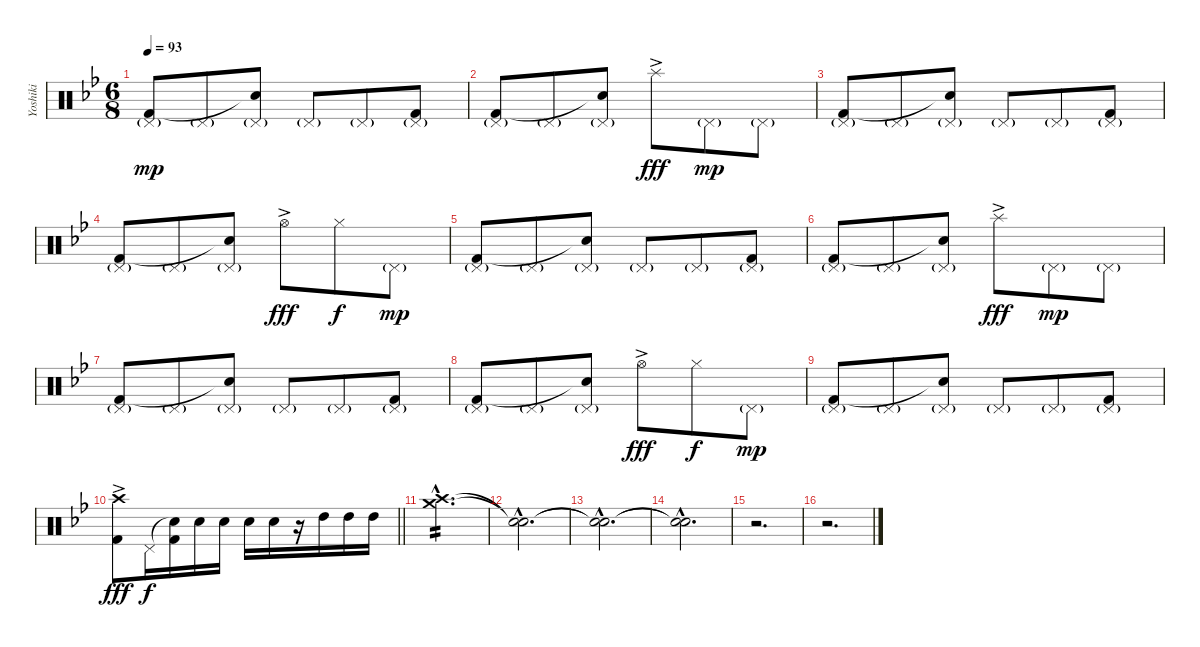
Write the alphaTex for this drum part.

\track ("Yoshiki" "Yoshiki") {instrument percussion}
\staff {score}
\articulation defaults
\ts (6 8)
\tempo 93
\clef neutral
\ks bb
("Pedal Hi-Hat (hit)"{g} "Kick (hit) 2").8{dy mp} "Pedal Hi-Hat (hit)"{g}.8 ("Pedal Hi-Hat (hit)"{g} "Snare (hit)"{t}).8 "Pedal Hi-Hat (hit)"{g}.8 "Pedal Hi-Hat (hit)"{g}.8 ("Pedal Hi-Hat (hit)"{g} "Kick (hit) 2").8 |
("Pedal Hi-Hat (hit)"{g} "Kick (hit) 2").8 "Pedal Hi-Hat (hit)"{g}.8 ("Pedal Hi-Hat (hit)"{g} "Snare (hit)"{t}).8 "Splash (hit)"{ac}.8{dy fff} "Pedal Hi-Hat (hit)"{g}.8{dy mp} "Pedal Hi-Hat (hit)"{g}.8 |
("Pedal Hi-Hat (hit)"{g} "Kick (hit) 2").8 "Pedal Hi-Hat (hit)"{g}.8 ("Pedal Hi-Hat (hit)"{g} "Snare (hit)"{t}).8 "Pedal Hi-Hat (hit)"{g}.8 "Pedal Hi-Hat (hit)"{g}.8 ("Pedal Hi-Hat (hit)"{g} "Kick (hit) 2").8 |
("Pedal Hi-Hat (hit)"{g} "Kick (hit) 2").8 "Pedal Hi-Hat (hit)"{g}.8 ("Pedal Hi-Hat (hit)"{g} "Snare (hit)"{t}).8 "Hi-Hat (open)"{ac}.8{dy fff} "Hi-Hat (closed)".8{dy f} "Pedal Hi-Hat (hit)"{g}.8{dy mp} |
("Pedal Hi-Hat (hit)"{g} "Kick (hit) 2").8 "Pedal Hi-Hat (hit)"{g}.8 ("Pedal Hi-Hat (hit)"{g} "Snare (hit)"{t}).8 "Pedal Hi-Hat (hit)"{g}.8 "Pedal Hi-Hat (hit)"{g}.8 ("Pedal Hi-Hat (hit)"{g} "Kick (hit) 2").8 |
("Pedal Hi-Hat (hit)"{g} "Kick (hit) 2").8 "Pedal Hi-Hat (hit)"{g}.8 ("Pedal Hi-Hat (hit)"{g} "Snare (hit)"{t}).8 "Splash (hit)"{ac}.8{dy fff} "Pedal Hi-Hat (hit)"{g}.8{dy mp} "Pedal Hi-Hat (hit)"{g}.8 |
("Pedal Hi-Hat (hit)"{g} "Kick (hit) 2").8 "Pedal Hi-Hat (hit)"{g}.8 ("Pedal Hi-Hat (hit)"{g} "Snare (hit)"{t}).8 "Pedal Hi-Hat (hit)"{g}.8 "Pedal Hi-Hat (hit)"{g}.8 ("Pedal Hi-Hat (hit)"{g} "Kick (hit) 2").8 |
("Pedal Hi-Hat (hit)"{g} "Kick (hit) 2").8 "Pedal Hi-Hat (hit)"{g}.8 ("Pedal Hi-Hat (hit)"{g} "Snare (hit)"{t}).8 "Hi-Hat (open)"{ac}.8{dy fff} "Hi-Hat (closed)".8{dy f} "Pedal Hi-Hat (hit)"{g}.8{dy mp} |
("Pedal Hi-Hat (hit)"{g} "Kick (hit) 2").8 "Pedal Hi-Hat (hit)"{g}.8 ("Pedal Hi-Hat (hit)"{g} "Snare (hit)"{t}).8 "Pedal Hi-Hat (hit)"{g}.8 "Pedal Hi-Hat (hit)"{g}.8 ("Pedal Hi-Hat (hit)"{g} "Kick (hit) 2").8 |
\barLineRight lightlight
("Crash high (hit)"{ac} "Kick (hit) 2"{ac}).8{dy fff} "Pedal Hi-Hat (hit)".16{dy f} ("Snare (hit)"{t} "Kick (hit) 2").16 "Snare (hit) 2".16 "Snare (hit) 2".16 "Snare (hit) 2".16 "Snare (hit) 2".16 r.16 "High Tom (hit)".16 "High Tom (hit)".16 "High Tom (hit)".16 |
("Crash high (hit)"{hac} "Crash medium (hit)"{hac}).2{d tp 2 volume 7} |
("Snare (hit)"{hac t} "Snare (hit)"{hac t}).2{d volume 6} |
("Snare (hit)"{hac t} "Snare (hit)"{hac t}).2{d volume 5} |
("Snare (hit)"{hac t} "Snare (hit)"{hac t}).2{d volume 4} |
r.2{d} |
r.2{d}
